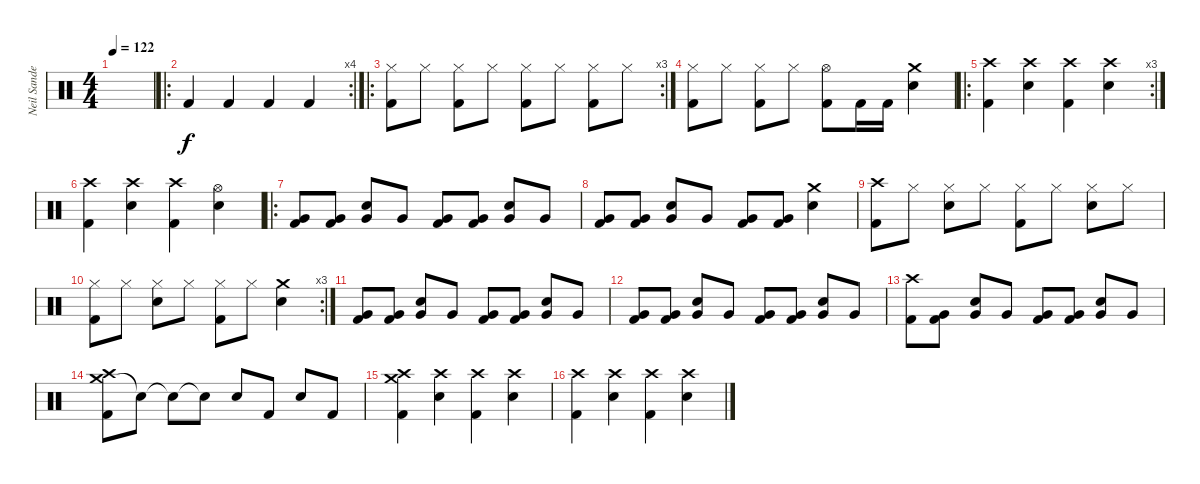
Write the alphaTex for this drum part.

\track ("Neil Sanderson-Drums" "Neil Sande") {instrument percussion}
\staff {score}
\articulation defaults
\ts (4 4)
\tempo 122
\clef neutral
\ks c
|
\ro
\rc 4 "Kick (hit) 2".4 "Kick (hit) 2".4 "Kick (hit) 2".4 "Kick (hit) 2".4
|
\ro
\rc 3
("Hi-Hat (closed)" "Kick (hit) 2").8 "Hi-Hat (closed)".8 ("Hi-Hat (closed)" "Kick (hit) 2").8 "Hi-Hat (closed)".8 ("Hi-Hat (closed)" "Kick (hit) 2").8 "Hi-Hat (closed)".8 ("Hi-Hat (closed)" "Kick (hit) 2").8 "Hi-Hat (closed)".8 |
("Hi-Hat (closed)" "Kick (hit) 2").8 "Hi-Hat (closed)".8 ("Hi-Hat (closed)" "Kick (hit) 2").8 "Hi-Hat (closed)".8 ("Hi-Hat (open)" "Kick (hit) 2").8 "Kick (hit) 2".16 "Kick (hit) 2".16 ("Crash medium (hit)" "Snare (hit) 2").4 |
\ro
\rc 3
("Crash high (hit)" "Kick (hit) 2").4 ("Crash high (hit)" "Snare (hit) 2").4 ("Crash high (hit)" "Kick (hit) 2").4 ("Crash high (hit)" "Snare (hit) 2").4 |
("Crash high (hit)" "Kick (hit) 2").4 ("Crash high (hit)" "Snare (hit) 2").4 ("Crash high (hit)" "Kick (hit) 2").4 ("Hi-Hat (open)" "Snare (hit) 2").4 |
\ro
("Very Low Tom (hit)" "Kick (hit) 2").8 ("Very Low Tom (hit)" "Kick (hit) 2").8 ("Very Low Tom (hit)" "Snare (hit) 2").8 "Very Low Tom (hit)".8 ("Very Low Tom (hit)" "Kick (hit) 2").8 ("Very Low Tom (hit)" "Kick (hit) 2").8 ("Very Low Tom (hit)" "Snare (hit) 2").8 "Very Low Tom (hit)".8 |
("Very Low Tom (hit)" "Kick (hit) 2").8 ("Very Low Tom (hit)" "Kick (hit) 2").8 ("Very Low Tom (hit)" "Snare (hit) 2").8 "Very Low Tom (hit)".8 ("Very Low Tom (hit)" "Kick (hit) 2").8 ("Very Low Tom (hit)" "Kick (hit) 2").8 ("Crash medium (hit)" "Snare (hit) 2").4 |
("Crash high (hit)" "Kick (hit) 2").8 "Hi-Hat (closed)".8 ("Hi-Hat (closed)" "Snare (hit) 2").8 "Hi-Hat (closed)".8 ("Hi-Hat (closed)" "Kick (hit) 2").8 "Hi-Hat (closed)".8 ("Hi-Hat (closed)" "Snare (hit) 2").8 "Hi-Hat (closed)".8 |
\rc 3
("Hi-Hat (closed)" "Kick (hit) 2").8 "Hi-Hat (closed)".8 ("Hi-Hat (closed)" "Snare (hit) 2").8 "Hi-Hat (closed)".8 ("Hi-Hat (closed)" "Kick (hit) 2").8 "Hi-Hat (closed)".8 ("Crash medium (hit)" "Snare (hit) 2").4 |
("Very Low Tom (hit)" "Kick (hit) 2").8 ("Very Low Tom (hit)" "Kick (hit) 2").8 ("Very Low Tom (hit)" "Snare (hit) 2").8 "Very Low Tom (hit)".8 ("Very Low Tom (hit)" "Kick (hit) 2").8 ("Very Low Tom (hit)" "Kick (hit) 2").8 ("Very Low Tom (hit)" "Snare (hit) 2").8 "Very Low Tom (hit)".8 |
("Very Low Tom (hit)" "Kick (hit) 2").8 ("Very Low Tom (hit)" "Kick (hit) 2").8 ("Very Low Tom (hit)" "Snare (hit) 2").8 "Very Low Tom (hit)".8 ("Very Low Tom (hit)" "Kick (hit) 2").8 ("Very Low Tom (hit)" "Kick (hit) 2").8 ("Very Low Tom (hit)" "Snare (hit) 2").8 "Very Low Tom (hit)".8 |
("Crash high (hit)" "Kick (hit) 2").8 ("Very Low Tom (hit)" "Kick (hit) 2").8 ("Very Low Tom (hit)" "Snare (hit) 2").8 "Very Low Tom (hit)".8 ("Very Low Tom (hit)" "Kick (hit) 2").8 ("Very Low Tom (hit)" "Kick (hit) 2").8 ("Very Low Tom (hit)" "Snare (hit) 2").8 "Very Low Tom (hit)".8 |
("Crash medium (hit)" "Crash high (hit)" "Kick (hit) 2").8 "Snare (hit)"{t}.8 "Snare (hit)"{t}.8 "Snare (hit)"{t}.8 "Snare (hit) 2".8 "Kick (hit) 2".8 "Snare (hit) 2".8 "Kick (hit) 2".8 |
("Crash high (hit)" "Crash medium (hit)" "Kick (hit) 2").4 ("Crash high (hit)" "Snare (hit) 2").4 ("Crash high (hit)" "Kick (hit) 2").4 ("Crash high (hit)" "Snare (hit) 2").4 |
("Crash high (hit)" "Kick (hit) 2").4 ("Crash high (hit)" "Snare (hit) 2").4 ("Crash high (hit)" "Kick (hit) 2").4 ("Crash high (hit)" "Snare (hit) 2").4
